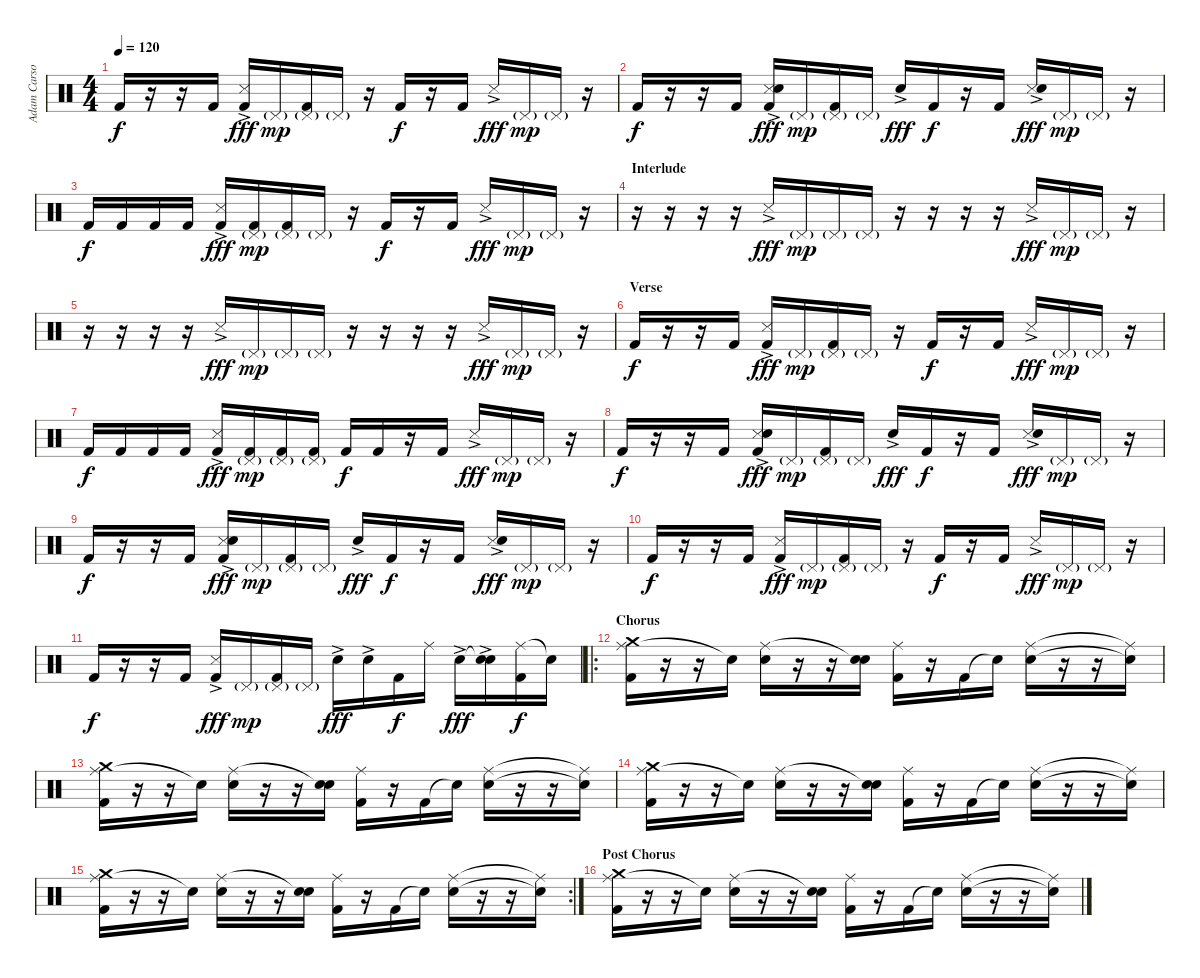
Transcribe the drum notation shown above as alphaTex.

\track ("Adam Carson-Drums" "Adam Carso") {instrument percussion}
\staff {score}
\articulation defaults
\ts (4 4)
\tempo 120
\clef neutral
\ks c "Kick (hit) 2".16{dy f}
r.16 r.16 "Kick (hit) 2".16 ("Kick (hit) 2" "Snare (side stick) 3"{ac}).16{dy fff} "Pedal Hi-Hat (hit)"{g}.16{dy mp} ("Kick (hit) 2" "Pedal Hi-Hat (hit)"{g}).16 "Pedal Hi-Hat (hit)"{g}.16 r.16 "Kick (hit) 2".16{dy f} r.16 "Kick (hit) 2".16 "Snare (side stick) 3"{ac}.16{dy fff} "Pedal Hi-Hat (hit)"{g}.16{dy mp} "Pedal Hi-Hat (hit)"{g}.16 r.16 |
"Kick (hit) 2".16{dy f} r.16 r.16 "Kick (hit) 2".16 ("Kick (hit) 2" "Snare (side stick) 3"{ac} "Hand Clap (hit)"{ac}).16{dy fff} "Pedal Hi-Hat (hit)"{g}.16{dy mp} ("Kick (hit) 2" "Pedal Hi-Hat (hit)"{g}).16 "Pedal Hi-Hat (hit)"{g}.16 "Hand Clap (hit)"{ac}.16{dy fff} "Kick (hit) 2".16{dy f} r.16 "Kick (hit) 2".16 ("Snare (side stick) 3"{ac} "Hand Clap (hit)"{ac}).16{dy fff} "Pedal Hi-Hat (hit)"{g}.16{dy mp} "Pedal Hi-Hat (hit)"{g}.16 r.16 |
"Kick (hit) 2".16{dy f volume 16 balance 8} "Kick (hit) 2".16 "Kick (hit) 2".16 "Kick (hit) 2".16 ("Kick (hit) 2" "Snare (side stick) 3"{ac}).16{dy fff} ("Kick (hit) 2" "Pedal Hi-Hat (hit)"{g}).16{dy mp} ("Kick (hit) 2" "Pedal Hi-Hat (hit)"{g}).16 "Pedal Hi-Hat (hit)"{g}.16 r.16 "Kick (hit) 2".16{dy f} r.16 "Kick (hit) 2".16 "Snare (side stick) 3"{ac}.16{dy fff} "Pedal Hi-Hat (hit)"{g}.16{dy mp} "Pedal Hi-Hat (hit)"{g}.16 r.16 |
\section ("" "Interlude")
r.16{volume 16 balance 8} r.16 r.16 r.16 "Snare (side stick) 3"{ac}.16{dy fff} "Pedal Hi-Hat (hit)"{g}.16{dy mp} "Pedal Hi-Hat (hit)"{g}.16 "Pedal Hi-Hat (hit)"{g}.16 r.16 r.16 r.16 r.16 "Snare (side stick) 3"{ac}.16{dy fff} "Pedal Hi-Hat (hit)"{g}.16{dy mp} "Pedal Hi-Hat (hit)"{g}.16 r.16 |
r.16{volume 16 balance 8} r.16 r.16 r.16 "Snare (side stick) 3"{ac}.16{dy fff} "Pedal Hi-Hat (hit)"{g}.16{dy mp} "Pedal Hi-Hat (hit)"{g}.16 "Pedal Hi-Hat (hit)"{g}.16 r.16 r.16 r.16 r.16 "Snare (side stick) 3"{ac}.16{dy fff} "Pedal Hi-Hat (hit)"{g}.16{dy mp} "Pedal Hi-Hat (hit)"{g}.16 r.16 |
\section ("" "Verse")
"Kick (hit) 2".16{dy f} r.16 r.16 "Kick (hit) 2".16 ("Kick (hit) 2" "Snare (side stick) 3"{ac}).16{dy fff} "Pedal Hi-Hat (hit)"{g}.16{dy mp} ("Kick (hit) 2" "Pedal Hi-Hat (hit)"{g}).16 "Pedal Hi-Hat (hit)"{g}.16 r.16 "Kick (hit) 2".16{dy f} r.16 "Kick (hit) 2".16 "Snare (side stick) 3"{ac}.16{dy fff} "Pedal Hi-Hat (hit)"{g}.16{dy mp} "Pedal Hi-Hat (hit)"{g}.16 r.16 |
"Kick (hit) 2".16{dy f} "Kick (hit) 2".16 "Kick (hit) 2".16 "Kick (hit) 2".16 ("Kick (hit) 2" "Snare (side stick) 3"{ac}).16{dy fff} ("Kick (hit) 2" "Pedal Hi-Hat (hit)"{g}).16{dy mp} ("Kick (hit) 2" "Pedal Hi-Hat (hit)"{g}).16 ("Kick (hit) 2" "Pedal Hi-Hat (hit)"{g}).16 "Kick (hit) 2".16{dy f} "Kick (hit) 2".16 r.16 "Kick (hit) 2".16 "Snare (side stick) 3"{ac}.16{dy fff} "Pedal Hi-Hat (hit)"{g}.16{dy mp} "Pedal Hi-Hat (hit)"{g}.16 r.16 |
"Kick (hit) 2".16{dy f} r.16 r.16 "Kick (hit) 2".16 ("Kick (hit) 2" "Snare (side stick) 3"{ac} "Hand Clap (hit)"{ac}).16{dy fff} "Pedal Hi-Hat (hit)"{g}.16{dy mp} ("Kick (hit) 2" "Pedal Hi-Hat (hit)"{g}).16 "Pedal Hi-Hat (hit)"{g}.16 "Hand Clap (hit)"{ac}.16{dy fff} "Kick (hit) 2".16{dy f} r.16 "Kick (hit) 2".16 ("Snare (side stick) 3"{ac} "Hand Clap (hit)"{ac}).16{dy fff} "Pedal Hi-Hat (hit)"{g}.16{dy mp} "Pedal Hi-Hat (hit)"{g}.16 r.16 |
"Kick (hit) 2".16{dy f} r.16 r.16 "Kick (hit) 2".16 ("Kick (hit) 2" "Snare (side stick) 3"{ac} "Hand Clap (hit)"{ac}).16{dy fff} "Pedal Hi-Hat (hit)"{g}.16{dy mp} ("Kick (hit) 2" "Pedal Hi-Hat (hit)"{g}).16 "Pedal Hi-Hat (hit)"{g}.16 "Hand Clap (hit)"{ac}.16{dy fff} "Kick (hit) 2".16{dy f} r.16 "Kick (hit) 2".16 ("Snare (side stick) 3"{ac} "Hand Clap (hit)"{ac}).16{dy fff} "Pedal Hi-Hat (hit)"{g}.16{dy mp} "Pedal Hi-Hat (hit)"{g}.16 r.16 |
"Kick (hit) 2".16{dy f} r.16 r.16 "Kick (hit) 2".16 ("Kick (hit) 2" "Snare (side stick) 3"{ac}).16{dy fff} "Pedal Hi-Hat (hit)"{g}.16{dy mp} ("Kick (hit) 2" "Pedal Hi-Hat (hit)"{g}).16 "Pedal Hi-Hat (hit)"{g}.16 r.16 "Kick (hit) 2".16{dy f} r.16 "Kick (hit) 2".16 "Snare (side stick) 3"{ac}.16{dy fff} "Pedal Hi-Hat (hit)"{g}.16{dy mp} "Pedal Hi-Hat (hit)"{g}.16 r.16 |
"Kick (hit) 2".16{dy f} r.16 r.16 "Kick (hit) 2".16 ("Kick (hit) 2" "Snare (side stick) 3"{ac}).16{dy fff} "Pedal Hi-Hat (hit)"{g}.16{dy mp} ("Kick (hit) 2" "Pedal Hi-Hat (hit)"{g}).16 "Pedal Hi-Hat (hit)"{g}.16 "Snare (hit) 2"{ac}.16{dy fff} "Snare (hit) 2"{ac}.16 "Kick (hit) 2".16{dy f} "Ride (middle)".16 "Snare (hit) 2"{ac}.16{dy fff} ("Snare (hit)"{t} "Snare (hit) 2"{ac}).16 ("Ride (middle)" "Kick (hit) 2").16{dy f} "Snare (hit)"{t}.16 |
\ro
\section ("" "Chorus")
("Ride (middle)" "Crash medium (hit)" "Kick (hit) 2").16 r.16 r.16 "Snare (hit)"{t}.16 ("Ride (middle)" "Snare (hit) 2").16 r.16 r.16 ("Snare (hit)"{t} "Snare (hit) 2").16 ("Ride (middle)" "Kick (hit) 2").16 r.16 "Kick (hit) 2".16 "Snare (hit)"{t}.16 ("Ride (middle)" "Snare (hit) 2").16 r.16 r.16 ("Ride (middle)"{t} "Snare (hit)"{t}).16 |
("Ride (middle)" "Crash medium (hit)" "Kick (hit) 2").16 r.16 r.16 "Snare (hit)"{t}.16 ("Ride (middle)" "Snare (hit) 2").16 r.16 r.16 ("Snare (hit)"{t} "Snare (hit) 2").16 ("Ride (middle)" "Kick (hit) 2").16 r.16 "Kick (hit) 2".16 "Snare (hit)"{t}.16 ("Ride (middle)" "Snare (hit) 2").16 r.16 r.16 ("Ride (middle)"{t} "Snare (hit)"{t}).16 |
("Ride (middle)" "Crash medium (hit)" "Kick (hit) 2").16 r.16 r.16 "Snare (hit)"{t}.16 ("Ride (middle)" "Snare (hit) 2").16 r.16 r.16 ("Snare (hit)"{t} "Snare (hit) 2").16 ("Ride (middle)" "Kick (hit) 2").16 r.16 "Kick (hit) 2".16 "Snare (hit)"{t}.16 ("Ride (middle)" "Snare (hit) 2").16 r.16 r.16 ("Ride (middle)"{t} "Snare (hit)"{t}).16 |
\rc 2
("Ride (middle)" "Crash medium (hit)" "Kick (hit) 2").16 r.16 r.16 "Snare (hit)"{t}.16 ("Ride (middle)" "Snare (hit) 2").16 r.16 r.16 ("Snare (hit)"{t} "Snare (hit) 2").16 ("Ride (middle)" "Kick (hit) 2").16 r.16 "Kick (hit) 2".16 "Snare (hit)"{t}.16 ("Ride (middle)" "Snare (hit) 2").16 r.16 r.16 ("Ride (middle)"{t} "Snare (hit)"{t}).16 |
\section ("" "Post Chorus")
("Ride (middle)" "Crash medium (hit)" "Kick (hit) 2").16 r.16 r.16 "Snare (hit)"{t}.16 ("Ride (middle)" "Snare (hit) 2").16 r.16 r.16 ("Snare (hit)"{t} "Snare (hit) 2").16 ("Ride (middle)" "Kick (hit) 2").16 r.16 "Kick (hit) 2".16 "Snare (hit)"{t}.16 ("Ride (middle)" "Snare (hit) 2").16 r.16 r.16 ("Ride (middle)"{t} "Snare (hit)"{t}).16
